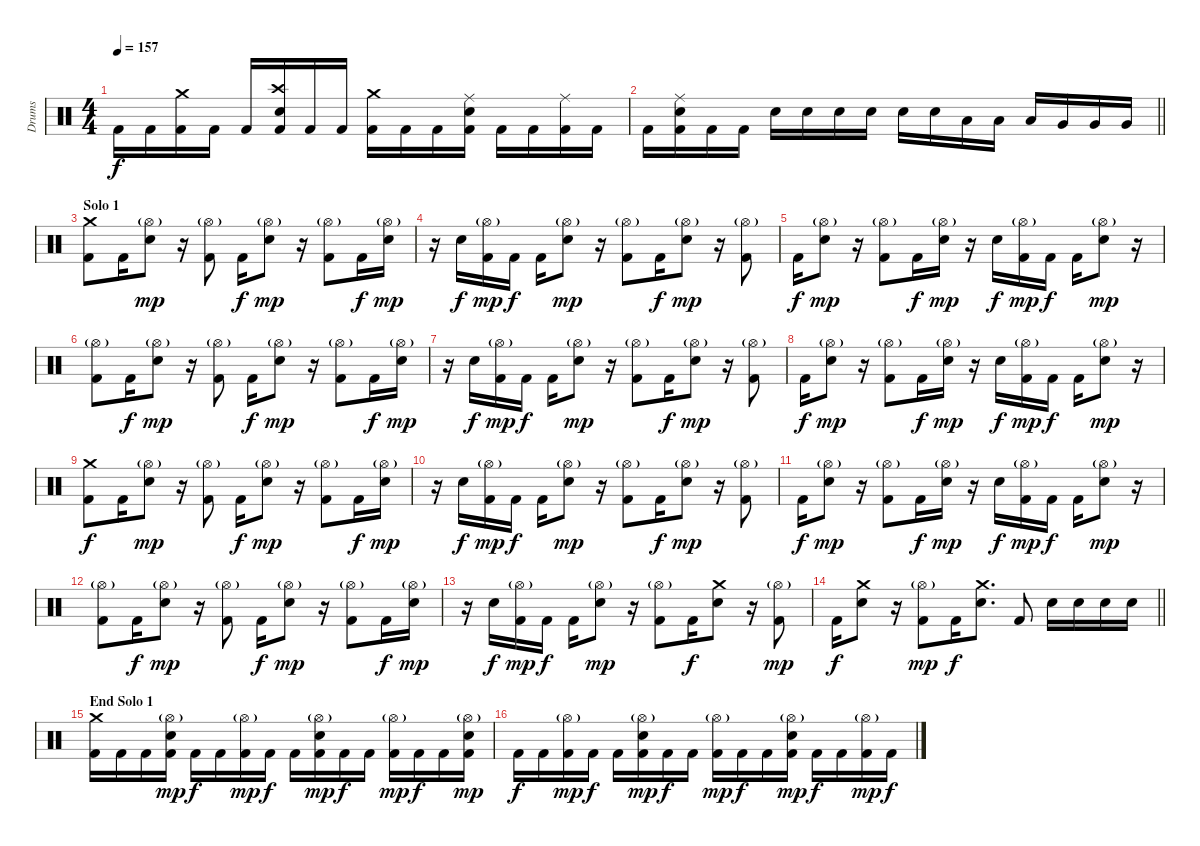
\track ("Drums" "Drums") {instrument percussion}
\staff {score}
\articulation defaults
\ts (4 4)
\tempo 157
\clef neutral
\ks c "Kick (hit) 2".16{dy f} "Kick (hit) 2".16
("Crash medium (hit)" "Kick (hit) 2").16 "Kick (hit) 2".16 "Kick (hit) 2".16 ("Crash high (hit)" "Snare (hit) 2" "Kick (hit) 2").16 "Kick (hit) 2".16 "Kick (hit) 2".16 ("Crash medium (hit)" "Kick (hit) 2").16 "Kick (hit) 2".16 "Kick (hit) 2".16 ("Ride (middle)" "Snare (hit) 2" "Kick (hit) 2").16 "Kick (hit) 2".16 "Kick (hit) 2".16 ("Ride (middle)" "Kick (hit) 2").16 "Kick (hit) 2".16 |
\barLineRight lightlight "Kick (hit) 2".16
("Ride (middle)" "Snare (hit) 2" "Kick (hit) 2").16 "Kick (hit) 2".16 "Kick (hit) 2".16 "Snare (hit) 2".16 "Snare (hit) 2".16 "Snare (hit) 2".16 "Snare (hit) 2".16 "Snare (hit) 2".16 "Snare (hit) 2".16 "Low Tom (hit)".16 "Low Tom (hit)".16 "Low Tom (hit)".16 "Very Low Tom (hit)".16 "Very Low Tom (hit)".16 "Very Low Tom (hit)".16 |
\section ("" "Solo 1")
("Crash medium (hit)" "Kick (hit) 2").8 "Kick (hit) 2".16 ("Snare (hit) 2" "Hi-Hat (open)"{g}).8{dy mp} r.16 ("Hi-Hat (open)"{g} "Kick (hit) 2").8 "Kick (hit) 2".16{dy f} ("Snare (hit) 2" "Hi-Hat (open)"{g}).8{dy mp} r.16 ("Hi-Hat (open)"{g} "Kick (hit) 2").8 "Kick (hit) 2".16{dy f} ("Snare (hit) 2" "Hi-Hat (open)"{g}).16{dy mp} |
r.16 "Snare (hit) 2".16{dy f} ("Hi-Hat (open)"{g} "Kick (hit) 2").16{dy mp} "Kick (hit) 2".16{dy f} "Kick (hit) 2".16 ("Snare (hit) 2" "Hi-Hat (open)"{g}).8{dy mp} r.16 ("Hi-Hat (open)"{g} "Kick (hit) 2").8 "Kick (hit) 2".16{dy f} ("Snare (hit) 2" "Hi-Hat (open)"{g}).8{dy mp} r.16 ("Hi-Hat (open)"{g} "Kick (hit) 2").8 |
"Kick (hit) 2".16{dy f} ("Snare (hit) 2" "Hi-Hat (open)"{g}).8{dy mp} r.16 ("Hi-Hat (open)"{g} "Kick (hit) 2").8 "Kick (hit) 2".16{dy f} ("Snare (hit) 2" "Hi-Hat (open)"{g}).16{dy mp} r.16 "Snare (hit) 2".16{dy f} ("Hi-Hat (open)"{g} "Kick (hit) 2").16{dy mp} "Kick (hit) 2".16{dy f} "Kick (hit) 2".16 ("Snare (hit) 2" "Hi-Hat (open)"{g}).8{dy mp} r.16 |
("Hi-Hat (open)"{g} "Kick (hit) 2").8 "Kick (hit) 2".16{dy f} ("Snare (hit) 2" "Hi-Hat (open)"{g}).8{dy mp} r.16 ("Hi-Hat (open)"{g} "Kick (hit) 2").8 "Kick (hit) 2".16{dy f} ("Snare (hit) 2" "Hi-Hat (open)"{g}).8{dy mp} r.16 ("Hi-Hat (open)"{g} "Kick (hit) 2").8 "Kick (hit) 2".16{dy f} ("Snare (hit) 2" "Hi-Hat (open)"{g}).16{dy mp} |
r.16 "Snare (hit) 2".16{dy f} ("Hi-Hat (open)"{g} "Kick (hit) 2").16{dy mp} "Kick (hit) 2".16{dy f} "Kick (hit) 2".16 ("Snare (hit) 2" "Hi-Hat (open)"{g}).8{dy mp} r.16 ("Hi-Hat (open)"{g} "Kick (hit) 2").8 "Kick (hit) 2".16{dy f} ("Snare (hit) 2" "Hi-Hat (open)"{g}).8{dy mp} r.16 ("Hi-Hat (open)"{g} "Kick (hit) 2").8 |
"Kick (hit) 2".16{dy f} ("Snare (hit) 2" "Hi-Hat (open)"{g}).8{dy mp} r.16 ("Hi-Hat (open)"{g} "Kick (hit) 2").8 "Kick (hit) 2".16{dy f} ("Snare (hit) 2" "Hi-Hat (open)"{g}).16{dy mp} r.16 "Snare (hit) 2".16{dy f} ("Hi-Hat (open)"{g} "Kick (hit) 2").16{dy mp} "Kick (hit) 2".16{dy f} "Kick (hit) 2".16 ("Snare (hit) 2" "Hi-Hat (open)"{g}).8{dy mp} r.16 |
("Crash medium (hit)" "Kick (hit) 2").8{dy f} "Kick (hit) 2".16 ("Snare (hit) 2" "Hi-Hat (open)"{g}).8{dy mp} r.16 ("Hi-Hat (open)"{g} "Kick (hit) 2").8 "Kick (hit) 2".16{dy f} ("Snare (hit) 2" "Hi-Hat (open)"{g}).8{dy mp} r.16 ("Hi-Hat (open)"{g} "Kick (hit) 2").8 "Kick (hit) 2".16{dy f} ("Snare (hit) 2" "Hi-Hat (open)"{g}).16{dy mp} |
r.16 "Snare (hit) 2".16{dy f} ("Hi-Hat (open)"{g} "Kick (hit) 2").16{dy mp} "Kick (hit) 2".16{dy f} "Kick (hit) 2".16 ("Snare (hit) 2" "Hi-Hat (open)"{g}).8{dy mp} r.16 ("Hi-Hat (open)"{g} "Kick (hit) 2").8 "Kick (hit) 2".16{dy f} ("Snare (hit) 2" "Hi-Hat (open)"{g}).8{dy mp} r.16 ("Hi-Hat (open)"{g} "Kick (hit) 2").8 |
"Kick (hit) 2".16{dy f} ("Snare (hit) 2" "Hi-Hat (open)"{g}).8{dy mp} r.16 ("Hi-Hat (open)"{g} "Kick (hit) 2").8 "Kick (hit) 2".16{dy f} ("Snare (hit) 2" "Hi-Hat (open)"{g}).16{dy mp} r.16 "Snare (hit) 2".16{dy f} ("Hi-Hat (open)"{g} "Kick (hit) 2").16{dy mp} "Kick (hit) 2".16{dy f} "Kick (hit) 2".16 ("Snare (hit) 2" "Hi-Hat (open)"{g}).8{dy mp} r.16 |
("Hi-Hat (open)"{g} "Kick (hit) 2").8 "Kick (hit) 2".16{dy f} ("Snare (hit) 2" "Hi-Hat (open)"{g}).8{dy mp} r.16 ("Hi-Hat (open)"{g} "Kick (hit) 2").8 "Kick (hit) 2".16{dy f} ("Snare (hit) 2" "Hi-Hat (open)"{g}).8{dy mp} r.16 ("Hi-Hat (open)"{g} "Kick (hit) 2").8 "Kick (hit) 2".16{dy f} ("Snare (hit) 2" "Hi-Hat (open)"{g}).16{dy mp} |
r.16 "Snare (hit) 2".16{dy f} ("Hi-Hat (open)"{g} "Kick (hit) 2").16{dy mp} "Kick (hit) 2".16{dy f} "Kick (hit) 2".16 ("Snare (hit) 2" "Hi-Hat (open)"{g}).8{dy mp} r.16 ("Hi-Hat (open)"{g} "Kick (hit) 2").8 "Kick (hit) 2".16{dy f} ("Crash medium (hit)" "Snare (hit) 2").8 r.16 ("Hi-Hat (open)"{g} "Kick (hit) 2").8{dy mp} |
\barLineRight lightlight "Kick (hit) 2".16{dy f}
("Crash medium (hit)" "Snare (hit) 2").8 r.16 ("Hi-Hat (open)"{g} "Kick (hit) 2").8{dy mp} "Kick (hit) 2".16{dy f} ("Crash medium (hit)" "Snare (hit) 2").8{d} "Kick (hit) 2".8 "Snare (hit) 2".16 "Snare (hit) 2".16 "Snare (hit) 2".16 "Snare (hit) 2".16 |
\section ("" "End Solo 1")
("Crash medium (hit)" "Kick (hit) 2").16 "Kick (hit) 2".16 "Kick (hit) 2".16 ("Hi-Hat (open)"{g} "Snare (hit) 2" "Kick (hit) 2").16{dy mp} "Kick (hit) 2".16{dy f} "Kick (hit) 2".16 ("Hi-Hat (open)"{g} "Kick (hit) 2").16{dy mp} "Kick (hit) 2".16{dy f} "Kick (hit) 2".16 ("Hi-Hat (open)"{g} "Snare (hit) 2" "Kick (hit) 2").16{dy mp} "Kick (hit) 2".16{dy f} "Kick (hit) 2".16 ("Hi-Hat (open)"{g} "Kick (hit) 2").16{dy mp} "Kick (hit) 2".16{dy f} "Kick (hit) 2".16 ("Hi-Hat (open)"{g} "Snare (hit) 2" "Kick (hit) 2").16{dy mp} |
"Kick (hit) 2".16{dy f} "Kick (hit) 2".16 ("Hi-Hat (open)"{g} "Kick (hit) 2").16{dy mp} "Kick (hit) 2".16{dy f} "Kick (hit) 2".16 ("Hi-Hat (open)"{g} "Snare (hit) 2" "Kick (hit) 2").16{dy mp} "Kick (hit) 2".16{dy f} "Kick (hit) 2".16 ("Hi-Hat (open)"{g} "Kick (hit) 2").16{dy mp} "Kick (hit) 2".16{dy f} "Kick (hit) 2".16 ("Hi-Hat (open)"{g} "Snare (hit) 2" "Kick (hit) 2").16{dy mp} "Kick (hit) 2".16{dy f} "Kick (hit) 2".16 ("Hi-Hat (open)"{g} "Kick (hit) 2").16{dy mp} "Kick (hit) 2".16{dy f}
